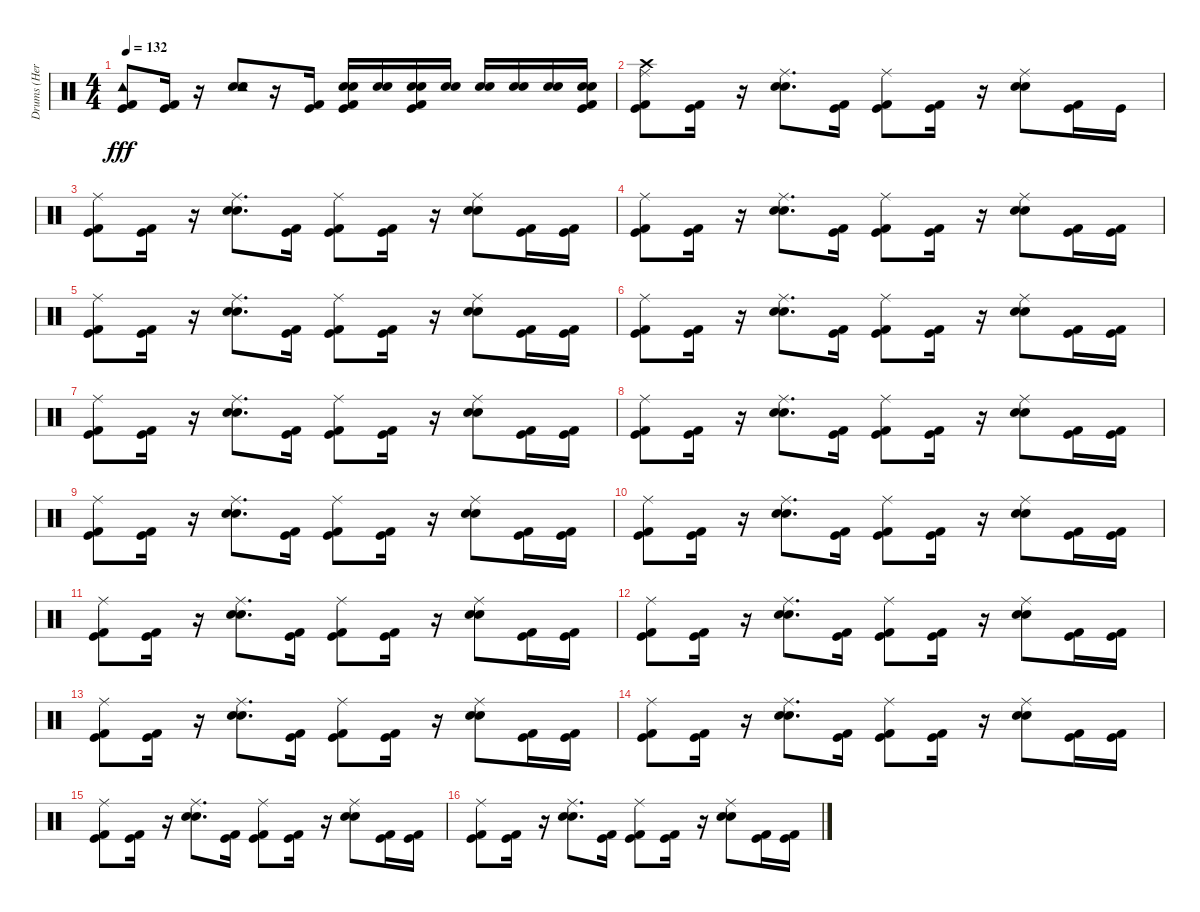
\track ("Drums (Herb Alexander)" "Drums (Her") {instrument percussion}
\staff {score}
\articulation defaults
\ts (4 4)
\tempo 132
\clef neutral
\ks c
("Tambourine (hit)" "Kick (hit)" "Kick (hit) 2").8{dy fff} ("Kick (hit)" "Kick (hit) 2").16 r.16 ("Snare (hit) 2" "Hand Clap (hit)" "Tambourine (hit)").8 r.16 ("Kick (hit)" "Kick (hit) 2").16 ("Snare (hit) 2" "Hand Clap (hit)" "Kick (hit)" "Kick (hit) 2").16 ("Snare (hit) 2" "Hand Clap (hit)").16 ("Snare (hit) 2" "Hand Clap (hit)" "Kick (hit)" "Kick (hit) 2").16 ("Snare (hit) 2" "Hand Clap (hit)").16 ("Snare (hit) 2" "Hand Clap (hit)").16 ("Snare (hit) 2" "Hand Clap (hit)").16 ("Snare (hit) 2" "Hand Clap (hit)").16 ("Hand Clap (hit)" "Snare (hit) 2" "Kick (hit)" "Kick (hit) 2").16 |
("Ride (middle)" "Kick (hit)" "Kick (hit) 2" "Crash high (hit)").8 ("Kick (hit)" "Kick (hit) 2").16 r.16 ("Ride (middle)" "Snare (hit) 2" "Hand Clap (hit)").8{d} ("Kick (hit)" "Kick (hit) 2").16 ("Ride (middle)" "Kick (hit)" "Kick (hit) 2").8 ("Kick (hit)" "Kick (hit) 2").16 r.16 ("Ride (middle)" "Snare (hit) 2" "Hand Clap (hit)").8 ("Kick (hit)" "Kick (hit) 2").16 "Kick (hit)".16 |
("Ride (middle)" "Kick (hit)" "Kick (hit) 2").8 ("Kick (hit)" "Kick (hit) 2").16 r.16 ("Ride (middle)" "Snare (hit) 2" "Hand Clap (hit)").8{d} ("Kick (hit)" "Kick (hit) 2").16 ("Ride (middle)" "Kick (hit)" "Kick (hit) 2").8 ("Kick (hit)" "Kick (hit) 2").16 r.16 ("Ride (middle)" "Snare (hit) 2" "Hand Clap (hit)").8 ("Kick (hit)" "Kick (hit) 2").16 ("Kick (hit)" "Kick (hit) 2").16 |
("Ride (middle)" "Kick (hit)" "Kick (hit) 2").8 ("Kick (hit)" "Kick (hit) 2").16 r.16 ("Ride (middle)" "Snare (hit) 2" "Hand Clap (hit)").8{d} ("Kick (hit)" "Kick (hit) 2").16 ("Ride (middle)" "Kick (hit)" "Kick (hit) 2").8 ("Kick (hit)" "Kick (hit) 2").16 r.16 ("Ride (middle)" "Snare (hit) 2" "Hand Clap (hit)").8 ("Kick (hit)" "Kick (hit) 2").16 ("Kick (hit)" "Kick (hit) 2").16 |
("Ride (middle)" "Kick (hit)" "Kick (hit) 2").8 ("Kick (hit)" "Kick (hit) 2").16 r.16 ("Ride (middle)" "Snare (hit) 2" "Hand Clap (hit)").8{d} ("Kick (hit)" "Kick (hit) 2").16 ("Ride (middle)" "Kick (hit)" "Kick (hit) 2").8 ("Kick (hit)" "Kick (hit) 2").16 r.16 ("Ride (middle)" "Snare (hit) 2" "Hand Clap (hit)").8 ("Kick (hit)" "Kick (hit) 2").16 ("Kick (hit)" "Kick (hit) 2").16 |
("Ride (middle)" "Kick (hit)" "Kick (hit) 2").8 ("Kick (hit)" "Kick (hit) 2").16 r.16 ("Ride (middle)" "Snare (hit) 2" "Hand Clap (hit)").8{d} ("Kick (hit)" "Kick (hit) 2").16 ("Ride (middle)" "Kick (hit)" "Kick (hit) 2").8 ("Kick (hit)" "Kick (hit) 2").16 r.16 ("Ride (middle)" "Snare (hit) 2" "Hand Clap (hit)").8 ("Kick (hit)" "Kick (hit) 2").16 ("Kick (hit)" "Kick (hit) 2").16 |
("Ride (middle)" "Kick (hit)" "Kick (hit) 2").8 ("Kick (hit)" "Kick (hit) 2").16 r.16 ("Ride (middle)" "Snare (hit) 2" "Hand Clap (hit)").8{d} ("Kick (hit)" "Kick (hit) 2").16 ("Ride (middle)" "Kick (hit)" "Kick (hit) 2").8 ("Kick (hit)" "Kick (hit) 2").16 r.16 ("Ride (middle)" "Snare (hit) 2" "Hand Clap (hit)").8 ("Kick (hit)" "Kick (hit) 2").16 ("Kick (hit)" "Kick (hit) 2").16 |
("Ride (middle)" "Kick (hit)" "Kick (hit) 2").8 ("Kick (hit)" "Kick (hit) 2").16 r.16 ("Ride (middle)" "Snare (hit) 2" "Hand Clap (hit)").8{d} ("Kick (hit)" "Kick (hit) 2").16 ("Ride (middle)" "Kick (hit)" "Kick (hit) 2").8 ("Kick (hit)" "Kick (hit) 2").16 r.16 ("Ride (middle)" "Snare (hit) 2" "Hand Clap (hit)").8 ("Kick (hit)" "Kick (hit) 2").16 ("Kick (hit)" "Kick (hit) 2").16 |
("Ride (middle)" "Kick (hit)" "Kick (hit) 2").8 ("Kick (hit)" "Kick (hit) 2").16 r.16 ("Ride (middle)" "Snare (hit) 2" "Hand Clap (hit)").8{d} ("Kick (hit)" "Kick (hit) 2").16 ("Ride (middle)" "Kick (hit)" "Kick (hit) 2").8 ("Kick (hit)" "Kick (hit) 2").16 r.16 ("Ride (middle)" "Snare (hit) 2" "Hand Clap (hit)").8 ("Kick (hit)" "Kick (hit) 2").16 ("Kick (hit)" "Kick (hit) 2").16 |
("Ride (middle)" "Kick (hit)" "Kick (hit) 2").8 ("Kick (hit)" "Kick (hit) 2").16 r.16 ("Ride (middle)" "Snare (hit) 2" "Hand Clap (hit)").8{d} ("Kick (hit)" "Kick (hit) 2").16 ("Ride (middle)" "Kick (hit)" "Kick (hit) 2").8 ("Kick (hit)" "Kick (hit) 2").16 r.16 ("Ride (middle)" "Snare (hit) 2" "Hand Clap (hit)").8 ("Kick (hit)" "Kick (hit) 2").16 ("Kick (hit)" "Kick (hit) 2").16 |
("Ride (middle)" "Kick (hit)" "Kick (hit) 2").8 ("Kick (hit)" "Kick (hit) 2").16 r.16 ("Ride (middle)" "Snare (hit) 2" "Hand Clap (hit)").8{d} ("Kick (hit)" "Kick (hit) 2").16 ("Ride (middle)" "Kick (hit)" "Kick (hit) 2").8 ("Kick (hit)" "Kick (hit) 2").16 r.16 ("Ride (middle)" "Snare (hit) 2" "Hand Clap (hit)").8 ("Kick (hit)" "Kick (hit) 2").16 ("Kick (hit)" "Kick (hit) 2").16 |
("Ride (middle)" "Kick (hit)" "Kick (hit) 2").8 ("Kick (hit)" "Kick (hit) 2").16 r.16 ("Ride (middle)" "Snare (hit) 2" "Hand Clap (hit)").8{d} ("Kick (hit)" "Kick (hit) 2").16 ("Ride (middle)" "Kick (hit)" "Kick (hit) 2").8 ("Kick (hit)" "Kick (hit) 2").16 r.16 ("Ride (middle)" "Snare (hit) 2" "Hand Clap (hit)").8 ("Kick (hit)" "Kick (hit) 2").16 ("Kick (hit)" "Kick (hit) 2").16 |
("Ride (middle)" "Kick (hit)" "Kick (hit) 2").8 ("Kick (hit)" "Kick (hit) 2").16 r.16 ("Ride (middle)" "Snare (hit) 2" "Hand Clap (hit)").8{d} ("Kick (hit)" "Kick (hit) 2").16 ("Ride (middle)" "Kick (hit)" "Kick (hit) 2").8 ("Kick (hit)" "Kick (hit) 2").16 r.16 ("Ride (middle)" "Snare (hit) 2" "Hand Clap (hit)").8 ("Kick (hit)" "Kick (hit) 2").16 ("Kick (hit)" "Kick (hit) 2").16 |
("Ride (middle)" "Kick (hit)" "Kick (hit) 2").8 ("Kick (hit)" "Kick (hit) 2").16 r.16 ("Ride (middle)" "Snare (hit) 2" "Hand Clap (hit)").8{d} ("Kick (hit)" "Kick (hit) 2").16 ("Ride (middle)" "Kick (hit)" "Kick (hit) 2").8 ("Kick (hit)" "Kick (hit) 2").16 r.16 ("Ride (middle)" "Snare (hit) 2" "Hand Clap (hit)").8 ("Kick (hit)" "Kick (hit) 2").16 ("Kick (hit)" "Kick (hit) 2").16 |
("Ride (middle)" "Kick (hit)" "Kick (hit) 2").8 ("Kick (hit)" "Kick (hit) 2").16 r.16 ("Ride (middle)" "Snare (hit) 2" "Hand Clap (hit)").8{d} ("Kick (hit)" "Kick (hit) 2").16 ("Ride (middle)" "Kick (hit)" "Kick (hit) 2").8 ("Kick (hit)" "Kick (hit) 2").16 r.16 ("Ride (middle)" "Snare (hit) 2" "Hand Clap (hit)").8 ("Kick (hit)" "Kick (hit) 2").16 ("Kick (hit)" "Kick (hit) 2").16 |
("Ride (middle)" "Kick (hit)" "Kick (hit) 2").8 ("Kick (hit)" "Kick (hit) 2").16 r.16 ("Ride (middle)" "Snare (hit) 2" "Hand Clap (hit)").8{d} ("Kick (hit)" "Kick (hit) 2").16 ("Ride (middle)" "Kick (hit)" "Kick (hit) 2").8 ("Kick (hit)" "Kick (hit) 2").16 r.16 ("Ride (middle)" "Snare (hit) 2" "Hand Clap (hit)").8 ("Kick (hit)" "Kick (hit) 2").16 ("Kick (hit)" "Kick (hit) 2").16
